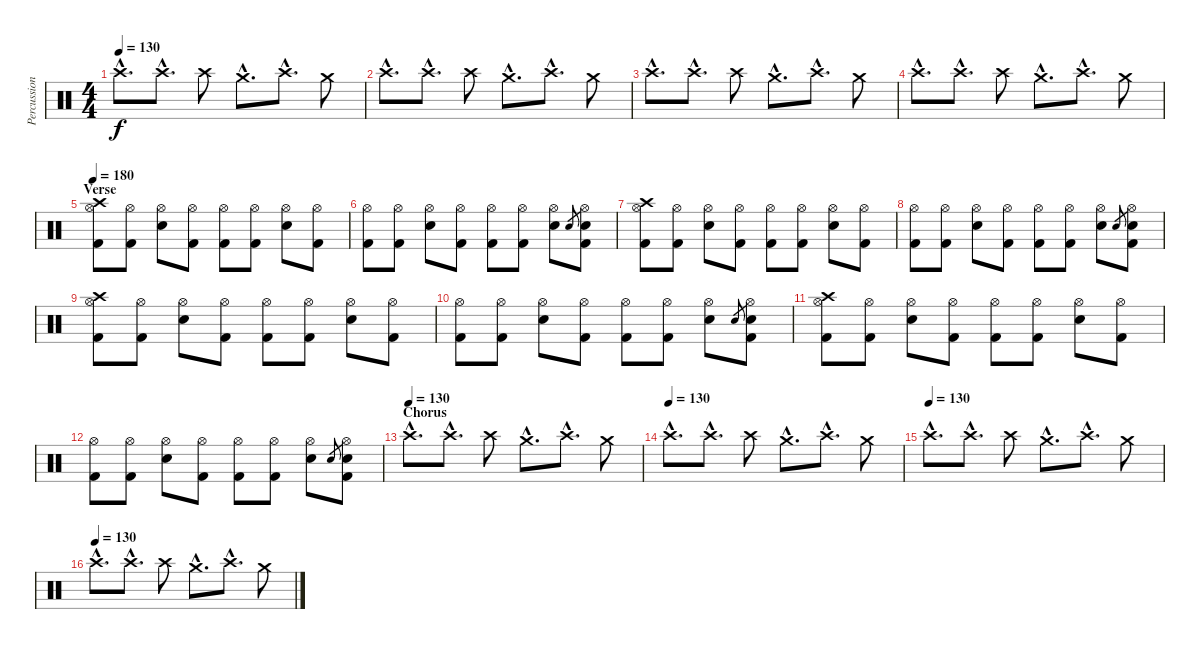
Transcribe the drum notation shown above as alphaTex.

\track ("Percussion" "Percussion") {instrument percussion}
\staff {score}
\articulation defaults
\ts (4 4)
\tempo 130
\clef neutral
\ks c "Crash high (hit)"{hac}.8{d dy f volume 13} "Crash high (hit)"{hac}.8{d} "Crash high (hit)".8 "Crash medium (hit)"{hac}.8{d volume 8} "Crash high (hit)"{hac}.8{d} "Crash medium (hit)".8
|
"Crash high (hit)"{hac}.8{d volume 13} "Crash high (hit)"{hac}.8{d} "Crash high (hit)".8 "Crash medium (hit)"{hac}.8{d volume 8} "Crash high (hit)"{hac}.8{d} "Crash medium (hit)".8 |
"Crash high (hit)"{hac}.8{d volume 13} "Crash high (hit)"{hac}.8{d} "Crash high (hit)".8 "Crash medium (hit)"{hac}.8{d volume 8} "Crash high (hit)"{hac}.8{d} "Crash medium (hit)".8 |
"Crash high (hit)"{hac}.8{d volume 13} "Crash high (hit)"{hac}.8{d} "Crash high (hit)".8 "Crash medium (hit)"{hac}.8{d volume 8} "Crash high (hit)"{hac}.8{d} "Crash medium (hit)".8 |
\section ("" "Verse")
\tempo 180
("Crash high (hit)" "Hi-Hat (open)" "Kick (hit) 2").8{volume 13} ("Hi-Hat (open)" "Kick (hit) 2").8 ("Hi-Hat (open)" "Electric Snare (hit)").8 ("Hi-Hat (open)" "Kick (hit) 2").8 ("Hi-Hat (open)" "Kick (hit) 2").8 ("Hi-Hat (open)" "Kick (hit) 2").8 ("Hi-Hat (open)" "Electric Snare (hit)").8 ("Hi-Hat (open)" "Kick (hit) 2").8 |
("Hi-Hat (open)" "Kick (hit) 2").8 ("Hi-Hat (open)" "Kick (hit) 2").8 ("Hi-Hat (open)" "Electric Snare (hit)").8 ("Hi-Hat (open)" "Kick (hit) 2").8 ("Hi-Hat (open)" "Kick (hit) 2").8 ("Hi-Hat (open)" "Kick (hit) 2").8 ("Hi-Hat (open)" "Electric Snare (hit)").8 "Electric Snare (hit)".8{gr} ("Hi-Hat (open)" "Electric Snare (hit)" "Kick (hit) 2").8 |
("Crash high (hit)" "Hi-Hat (open)" "Kick (hit) 2").8 ("Hi-Hat (open)" "Kick (hit) 2").8 ("Hi-Hat (open)" "Electric Snare (hit)").8 ("Hi-Hat (open)" "Kick (hit) 2").8 ("Hi-Hat (open)" "Kick (hit) 2").8 ("Hi-Hat (open)" "Kick (hit) 2").8 ("Hi-Hat (open)" "Electric Snare (hit)").8 ("Hi-Hat (open)" "Kick (hit) 2").8 |
("Hi-Hat (open)" "Kick (hit) 2").8 ("Hi-Hat (open)" "Kick (hit) 2").8 ("Hi-Hat (open)" "Electric Snare (hit)").8 ("Hi-Hat (open)" "Kick (hit) 2").8 ("Hi-Hat (open)" "Kick (hit) 2").8 ("Hi-Hat (open)" "Kick (hit) 2").8 ("Hi-Hat (open)" "Electric Snare (hit)").8 "Electric Snare (hit)".8{gr} ("Hi-Hat (open)" "Electric Snare (hit)" "Kick (hit) 2").8 |
("Crash high (hit)" "Hi-Hat (open)" "Kick (hit) 2").8 ("Hi-Hat (open)" "Kick (hit) 2").8 ("Hi-Hat (open)" "Electric Snare (hit)").8 ("Hi-Hat (open)" "Kick (hit) 2").8 ("Hi-Hat (open)" "Kick (hit) 2").8 ("Hi-Hat (open)" "Kick (hit) 2").8 ("Hi-Hat (open)" "Electric Snare (hit)").8 ("Hi-Hat (open)" "Kick (hit) 2").8 |
("Hi-Hat (open)" "Kick (hit) 2").8 ("Hi-Hat (open)" "Kick (hit) 2").8 ("Hi-Hat (open)" "Electric Snare (hit)").8 ("Hi-Hat (open)" "Kick (hit) 2").8 ("Hi-Hat (open)" "Kick (hit) 2").8 ("Hi-Hat (open)" "Kick (hit) 2").8 ("Hi-Hat (open)" "Electric Snare (hit)").8 "Electric Snare (hit)".8{gr} ("Hi-Hat (open)" "Electric Snare (hit)" "Kick (hit) 2").8 |
("Crash high (hit)" "Hi-Hat (open)" "Kick (hit) 2").8 ("Hi-Hat (open)" "Kick (hit) 2").8 ("Hi-Hat (open)" "Electric Snare (hit)").8 ("Hi-Hat (open)" "Kick (hit) 2").8 ("Hi-Hat (open)" "Kick (hit) 2").8 ("Hi-Hat (open)" "Kick (hit) 2").8 ("Hi-Hat (open)" "Electric Snare (hit)").8 ("Hi-Hat (open)" "Kick (hit) 2").8 |
("Hi-Hat (open)" "Kick (hit) 2").8 ("Hi-Hat (open)" "Kick (hit) 2").8 ("Hi-Hat (open)" "Electric Snare (hit)").8 ("Hi-Hat (open)" "Kick (hit) 2").8 ("Hi-Hat (open)" "Kick (hit) 2").8 ("Hi-Hat (open)" "Kick (hit) 2").8 ("Hi-Hat (open)" "Electric Snare (hit)").8 "Electric Snare (hit)".8{gr} ("Hi-Hat (open)" "Electric Snare (hit)" "Kick (hit) 2").8 |
\section ("" "Chorus")
\tempo (130)
"Crash high (hit)"{hac}.8{d volume 13} "Crash high (hit)"{hac}.8{d} "Crash high (hit)".8 "Crash medium (hit)"{hac}.8{d volume 8} "Crash high (hit)"{hac}.8{d} "Crash medium (hit)".8 |
\tempo (130)
"Crash high (hit)"{hac}.8{d volume 13} "Crash high (hit)"{hac}.8{d} "Crash high (hit)".8 "Crash medium (hit)"{hac}.8{d volume 8} "Crash high (hit)"{hac}.8{d} "Crash medium (hit)".8 |
\tempo (130)
"Crash high (hit)"{hac}.8{d volume 13} "Crash high (hit)"{hac}.8{d} "Crash high (hit)".8 "Crash medium (hit)"{hac}.8{d volume 8} "Crash high (hit)"{hac}.8{d} "Crash medium (hit)".8 |
\tempo (130)
"Crash high (hit)"{hac}.8{d volume 13} "Crash high (hit)"{hac}.8{d} "Crash high (hit)".8 "Crash medium (hit)"{hac}.8{d volume 8} "Crash high (hit)"{hac}.8{d} "Crash medium (hit)".8
